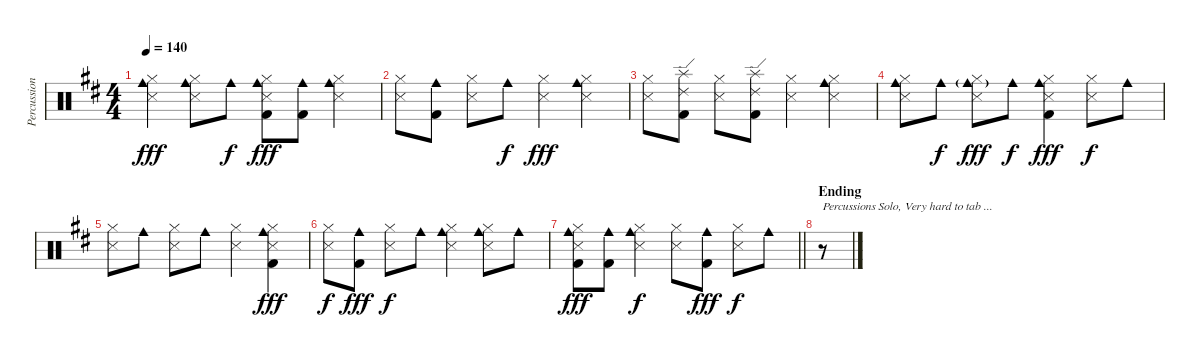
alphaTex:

\track ("Percussions" "Percussion") {instrument percussion}
\staff {score}
\articulation defaults
\ts (4 4)
\tempo 140
\clef neutral
\ks d
("Cowbell medium (hit)" "Snare (side stick) 3" "Hi-Hat (closed)").4{dy fff} ("Cowbell medium (hit)" "Snare (side stick) 3" "Hi-Hat (closed)").8 "Cowbell medium (hit)".8{dy f} ("Cowbell medium (hit)" "Snare (side stick) 3" "Kick (hit) 2" "Hi-Hat (closed)").8{dy fff} ("Cowbell medium (hit)" "Kick (hit) 2").8 ("Cowbell medium (hit)" "Snare (side stick) 3" "Hi-Hat (closed)").4 |
("Snare (side stick) 3" "Hi-Hat (closed)").8 ("Cowbell medium (hit)" "Kick (hit) 2").8 ("Snare (side stick) 3" "Hi-Hat (closed)").8 "Cowbell medium (hit)".8{dy f} ("Snare (side stick) 3" "Hi-Hat (closed)").4{dy fff} ("Cowbell medium (hit)" "Snare (side stick) 3" "Hi-Hat (closed)").4 |
("Snare (side stick) 3" "Hi-Hat (closed)").8 ("Ride (edge) 2" "Splash (hit)" "Kick (hit) 2").8 ("Snare (side stick) 3" "Hi-Hat (closed)").8 ("Ride (edge) 2" "Splash (hit)" "Kick (hit) 2").8 ("Snare (side stick) 3" "Hi-Hat (closed)").4 ("Cowbell medium (hit)" "Snare (side stick) 3" "Hi-Hat (closed)").4 |
("Cowbell medium (hit)" "Snare (side stick) 3" "Hi-Hat (closed)").8 "Cowbell medium (hit)".8{dy f} ("Cowbell medium (hit)"{g} "Snare (side stick) 3" "Hi-Hat (closed)").8{dy fff} "Cowbell medium (hit)".8{dy f} ("Cowbell medium (hit)" "Snare (side stick) 3" "Kick (hit) 2" "Hi-Hat (closed)").4{dy fff} ("Snare (side stick) 3" "Hi-Hat (closed)").8{dy f} "Cowbell medium (hit)".8 |
("Snare (side stick) 3" "Hi-Hat (closed)").8 "Cowbell medium (hit)".8 ("Snare (side stick) 3" "Hi-Hat (closed)").8 "Cowbell medium (hit)".8 ("Snare (side stick) 3" "Hi-Hat (closed)").4 ("Cowbell medium (hit)" "Snare (side stick) 3" "Kick (hit) 2" "Hi-Hat (closed)").4{dy fff} |
("Snare (side stick) 3" "Hi-Hat (closed)").8{dy f} ("Cowbell medium (hit)" "Kick (hit) 2").8{dy fff} ("Snare (side stick) 3" "Hi-Hat (closed)").8{dy f} "Cowbell medium (hit)".8 ("Cowbell medium (hit)" "Snare (side stick) 3" "Hi-Hat (closed)").4 ("Cowbell medium (hit)" "Snare (side stick) 3" "Hi-Hat (closed)").8 "Cowbell medium (hit)".8 |
\barLineRight lightlight
("Cowbell medium (hit)" "Snare (side stick) 3" "Kick (hit) 2" "Hi-Hat (closed)").8{dy fff} ("Cowbell medium (hit)" "Kick (hit) 2").8 ("Cowbell medium (hit)" "Snare (side stick) 3" "Hi-Hat (closed)").4{dy f} ("Snare (side stick) 3" "Hi-Hat (closed)").8 ("Cowbell medium (hit)" "Kick (hit) 2").8{dy fff} ("Snare (side stick) 3" "Hi-Hat (closed)").8{dy f} "Cowbell medium (hit)".8 |
\section ("" "Ending")
r.8{txt "Percussions Solo, Very hard to tab ..."}
